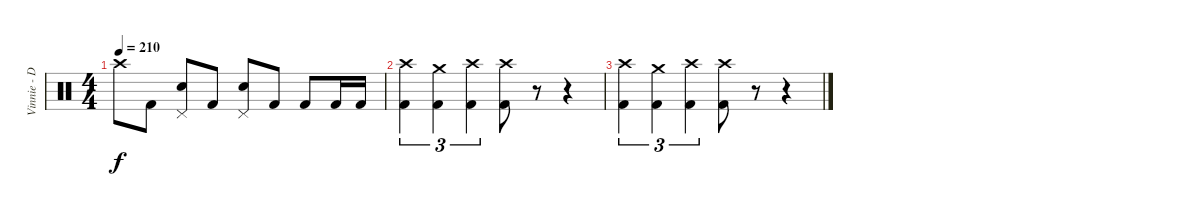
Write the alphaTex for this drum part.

\track ("Vinnie - Drums" "Vinnie - D") {instrument percussion}
\staff {score}
\articulation defaults
\ts (4 4)
\tempo 210
\clef neutral
\ks c "Crash high (hit)"{t}.8{dy f} "Kick (hit) 2".8
("Pedal Hi-Hat (hit)" "Electric Snare (hit)").8 "Kick (hit) 2".8 ("Pedal Hi-Hat (hit)" "Electric Snare (hit)").8 "Kick (hit) 2".8 "Kick (hit) 2".8 "Kick (hit) 2".16 "Kick (hit) 2".16 |
("Crash high (hit)" "Kick (hit) 2").4{tu (3 2)} ("Crash medium (hit)" "Kick (hit) 2").4{tu (3 2)} ("Crash high (hit)" "Kick (hit) 2").4{tu (3 2)} ("Crash high (hit)" "Kick (hit) 2").8 r.8 r.4 |
("Crash high (hit)" "Kick (hit) 2").4{tu (3 2)} ("Crash medium (hit)" "Kick (hit) 2").4{tu (3 2)} ("Crash high (hit)" "Kick (hit) 2").4{tu (3 2)} ("Crash high (hit)" "Kick (hit) 2").8 r.8 r.4
